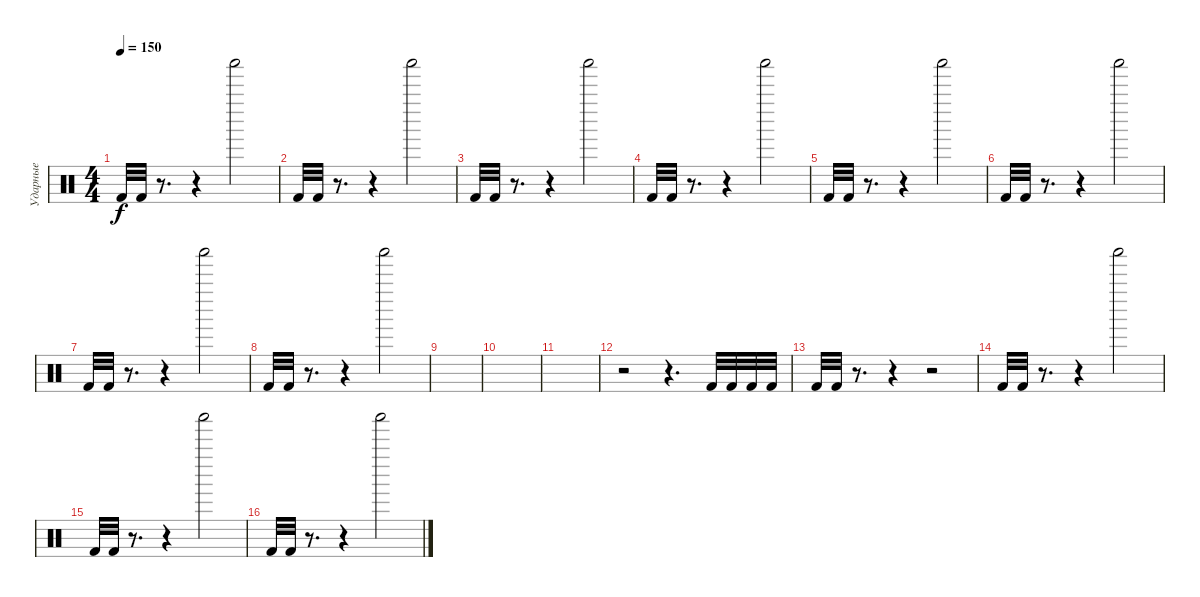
\track ("Ударные" "Ударные") {instrument percussion}
\staff {score}
\articulation defaults
\ts (4 4)
\tempo 150
\clef neutral
\ks c "Kick (hit) 2".32{dy f} "Kick (hit) 2".32
r.8{d} r.4 "Shaker (hit)".2 |
"Kick (hit) 2".32 "Kick (hit) 2".32 r.8{d} r.4 "Shaker (hit)".2 |
"Kick (hit) 2".32 "Kick (hit) 2".32 r.8{d} r.4 "Shaker (hit)".2 |
"Kick (hit) 2".32 "Kick (hit) 2".32 r.8{d} r.4 "Shaker (hit)".2 |
"Kick (hit) 2".32 "Kick (hit) 2".32 r.8{d} r.4 "Shaker (hit)".2 |
"Kick (hit) 2".32 "Kick (hit) 2".32 r.8{d} r.4 "Shaker (hit)".2 |
"Kick (hit) 2".32 "Kick (hit) 2".32 r.8{d} r.4 "Shaker (hit)".2 |
"Kick (hit) 2".32 "Kick (hit) 2".32 r.8{d} r.4 "Shaker (hit)".2 |
|
|
|
r.2 r.4{d} "Kick (hit) 2".32 "Kick (hit) 2".32 "Kick (hit) 2".32 "Kick (hit) 2".32 |
"Kick (hit) 2".32 "Kick (hit) 2".32 r.8{d} r.4 r.2 |
"Kick (hit) 2".32 "Kick (hit) 2".32 r.8{d} r.4 "Shaker (hit)".2 |
"Kick (hit) 2".32 "Kick (hit) 2".32 r.8{d} r.4 "Shaker (hit)".2 |
"Kick (hit) 2".32 "Kick (hit) 2".32 r.8{d} r.4 "Shaker (hit)".2
